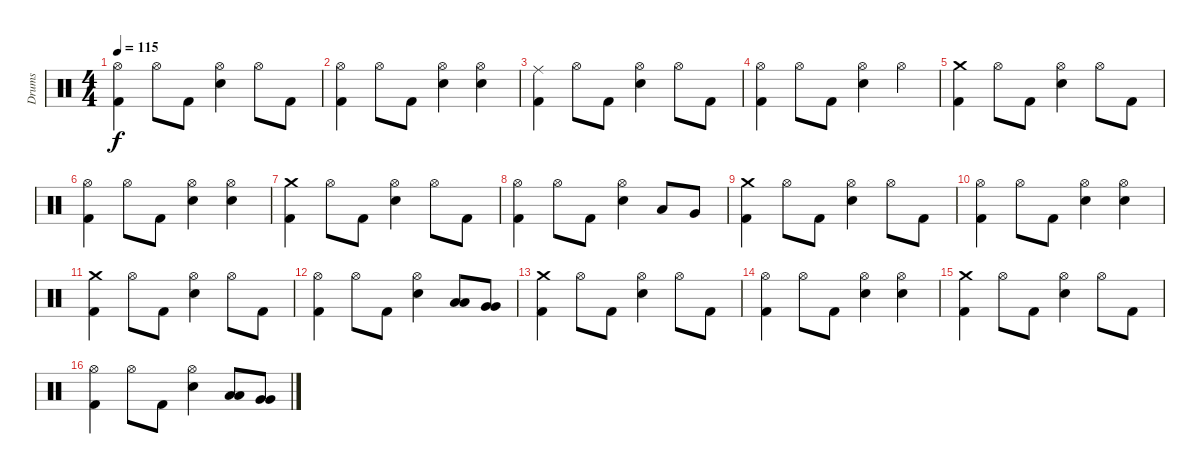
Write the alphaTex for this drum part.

\track ("Drums" "Drums") {instrument percussion}
\staff {score}
\articulation defaults
\ts (4 4)
\tempo 115
\clef neutral
\ks c
("Hi-Hat (open)" "Kick (hit) 2").4{dy f} "Hi-Hat (open)".8 "Kick (hit) 2".8 ("Hi-Hat (open)" "Electric Snare (hit)").4 "Hi-Hat (open)".8 "Kick (hit) 2".8 |
("Hi-Hat (open)" "Kick (hit) 2").4 "Hi-Hat (open)".8 "Kick (hit) 2".8 ("Hi-Hat (open)" "Electric Snare (hit)").4 ("Hi-Hat (open)" "Electric Snare (hit)").4 |
("Ride (middle)" "Kick (hit) 2").4 "Hi-Hat (open)".8 "Kick (hit) 2".8 ("Hi-Hat (open)" "Electric Snare (hit)").4 "Hi-Hat (open)".8 "Kick (hit) 2".8 |
("Hi-Hat (open)" "Kick (hit) 2").4 "Hi-Hat (open)".8 "Kick (hit) 2".8 ("Hi-Hat (open)" "Electric Snare (hit)").4 "Hi-Hat (open)".4 |
("Crash medium (hit)" "Kick (hit) 2").4 "Hi-Hat (open)".8 "Kick (hit) 2".8 ("Hi-Hat (open)" "Electric Snare (hit)").4 "Hi-Hat (open)".8 "Kick (hit) 2".8 |
("Hi-Hat (open)" "Kick (hit) 2").4 "Hi-Hat (open)".8 "Kick (hit) 2".8 ("Hi-Hat (open)" "Electric Snare (hit)").4 ("Hi-Hat (open)" "Electric Snare (hit)").4 |
("Crash medium (hit)" "Kick (hit) 2").4 "Hi-Hat (open)".8 "Kick (hit) 2".8 ("Hi-Hat (open)" "Electric Snare (hit)").4 "Hi-Hat (open)".8 "Kick (hit) 2".8 |
("Hi-Hat (open)" "Kick (hit) 2").4 "Hi-Hat (open)".8 "Kick (hit) 2".8 ("Hi-Hat (open)" "Electric Snare (hit)").4 "Low Tom (hit)".8 "Very Low Tom (hit)".8 |
("Crash medium (hit)" "Kick (hit) 2").4 "Hi-Hat (open)".8 "Kick (hit) 2".8 ("Hi-Hat (open)" "Electric Snare (hit)").4 "Hi-Hat (open)".8 "Kick (hit) 2".8 |
("Hi-Hat (open)" "Kick (hit) 2").4 "Hi-Hat (open)".8 "Kick (hit) 2".8 ("Hi-Hat (open)" "Electric Snare (hit)").4 ("Hi-Hat (open)" "Electric Snare (hit)").4 |
("Crash medium (hit)" "Kick (hit) 2").4 "Hi-Hat (open)".8 "Kick (hit) 2".8 ("Hi-Hat (open)" "Electric Snare (hit)").4 "Hi-Hat (open)".8 "Kick (hit) 2".8 |
("Hi-Hat (open)" "Kick (hit) 2").4 "Hi-Hat (open)".8 "Kick (hit) 2".8 ("Hi-Hat (open)" "Electric Snare (hit)").4 ("Low Tom (hit)" "Low Tom (hit)").8 ("Very Low Tom (hit)" "Very Low Tom (hit)").8 |
("Crash medium (hit)" "Kick (hit) 2").4 "Hi-Hat (open)".8 "Kick (hit) 2".8 ("Hi-Hat (open)" "Electric Snare (hit)").4 "Hi-Hat (open)".8 "Kick (hit) 2".8 |
("Hi-Hat (open)" "Kick (hit) 2").4 "Hi-Hat (open)".8 "Kick (hit) 2".8 ("Hi-Hat (open)" "Electric Snare (hit)").4 ("Hi-Hat (open)" "Electric Snare (hit)").4 |
("Crash medium (hit)" "Kick (hit) 2").4 "Hi-Hat (open)".8 "Kick (hit) 2".8 ("Hi-Hat (open)" "Electric Snare (hit)").4 "Hi-Hat (open)".8 "Kick (hit) 2".8 |
("Hi-Hat (open)" "Kick (hit) 2").4 "Hi-Hat (open)".8 "Kick (hit) 2".8 ("Hi-Hat (open)" "Electric Snare (hit)").4 ("Low Tom (hit)" "Low Tom (hit)").8 ("Very Low Tom (hit)" "Very Low Tom (hit)").8
